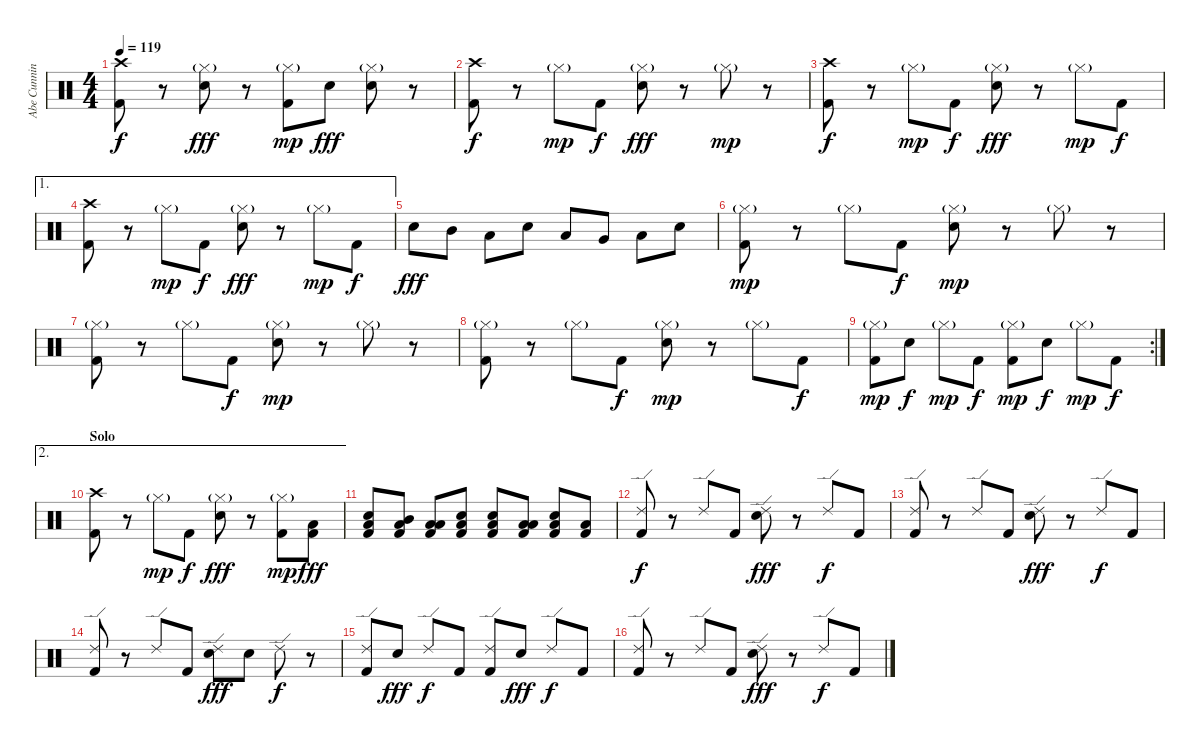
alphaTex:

\track ("Abe Cunningham" "Abe Cunnin") {instrument percussion}
\staff {score}
\articulation defaults
\ts (4 4)
\tempo 119
\clef neutral
\ks c
("Crash high (hit)" "Kick (hit) 2").8{dy f} r.8 ("Hi-Hat (closed)"{g} "Snare (hit) 2").8{dy fff} r.8 ("Hi-Hat (closed)"{g} "Kick (hit) 2").8{dy mp} "Snare (hit) 2".8{dy fff} ("Hi-Hat (closed)"{g} "Snare (hit) 2").8 r.8 |
("Crash high (hit)" "Kick (hit) 2").8{dy f} r.8 "Hi-Hat (closed)"{g}.8{dy mp} "Kick (hit) 2".8{dy f} ("Hi-Hat (closed)"{g} "Snare (hit) 2").8{dy fff} r.8 "Hi-Hat (closed)"{g}.8{dy mp} r.8 |
("Crash high (hit)" "Kick (hit) 2").8{dy f} r.8 "Hi-Hat (closed)"{g}.8{dy mp} "Kick (hit) 2".8{dy f} ("Hi-Hat (closed)"{g} "Snare (hit) 2").8{dy fff} r.8 "Hi-Hat (closed)"{g}.8{dy mp} "Kick (hit) 2".8{dy f} |
\ae 1
("Crash high (hit)" "Kick (hit) 2").8 r.8 "Hi-Hat (closed)"{g}.8{dy mp} "Kick (hit) 2".8{dy f} ("Hi-Hat (closed)"{g} "Snare (hit) 2").8{dy fff} r.8 "Hi-Hat (closed)"{g}.8{dy mp} "Kick (hit) 2".8{dy f} |
"Snare (hit) 2".8{dy fff} "Mid Tom (hit)".8 "Low Tom (hit)".8 "Snare (hit) 2".8 "Low Tom (hit)".8 "Very Low Tom (hit)".8 "Low Floor Tom (hit)".8 "Snare (hit) 2".8 |
("Hi-Hat (closed)"{g} "Kick (hit) 2").8{dy mp} r.8 "Hi-Hat (closed)"{g}.8 "Kick (hit) 2".8{dy f} ("Hi-Hat (closed)"{g} "Snare (hit) 2").8{dy mp} r.8 "Hi-Hat (closed)"{g}.8 r.8 |
("Hi-Hat (closed)"{g} "Kick (hit) 2").8 r.8 "Hi-Hat (closed)"{g}.8 "Kick (hit) 2".8{dy f} ("Hi-Hat (closed)"{g} "Snare (hit) 2").8{dy mp} r.8 "Hi-Hat (closed)"{g}.8 r.8 |
("Hi-Hat (closed)"{g} "Kick (hit) 2").8 r.8 "Hi-Hat (closed)"{g}.8 "Kick (hit) 2".8{dy f} ("Hi-Hat (closed)"{g} "Snare (hit) 2").8{dy mp} r.8 "Hi-Hat (closed)"{g}.8 "Kick (hit) 2".8{dy f} |
\rc 2
("Hi-Hat (closed)"{g} "Kick (hit) 2").8{dy mp} "Snare (hit) 2".8{dy f} "Hi-Hat (closed)"{g}.8{dy mp} "Kick (hit) 2".8{dy f} ("Hi-Hat (closed)"{g} "Kick (hit) 2").8{dy mp} "Snare (hit) 2".8{dy f} "Hi-Hat (closed)"{g}.8{dy mp} "Kick (hit) 2".8{dy f} |
\ae 2
\section ("" "Solo")
("Crash high (hit)" "Kick (hit) 2").8 r.8 "Hi-Hat (closed)"{g}.8{dy mp} "Kick (hit) 2".8{dy f} ("Hi-Hat (closed)"{g} "Snare (hit) 2").8{dy fff} r.8 ("Hi-Hat (closed)"{g} "Kick (hit) 2").8{dy mp} ("Low Floor Tom (hit)" "Kick (hit) 2").8{dy fff} |
("Snare (hit) 2" "Low Floor Tom (hit)" "Kick (hit) 2").8 ("Mid Tom (hit)" "Low Floor Tom (hit)" "Kick (hit) 2").8 ("Low Tom (hit)" "Low Floor Tom (hit)" "Kick (hit) 2").8 ("Snare (hit) 2" "Low Floor Tom (hit)" "Kick (hit) 2").8 ("Snare (hit) 2" "Low Floor Tom (hit)" "Kick (hit) 2").8 ("Low Tom (hit)" "Low Floor Tom (hit)" "Kick (hit) 2").8 ("Snare (hit) 2" "Low Floor Tom (hit)" "Kick (hit) 2").8 ("Low Floor Tom (hit)" "Kick (hit) 2").8 |
("Ride (edge) 2" "Kick (hit) 2").8{dy f} r.8 "Ride (edge) 2".8 "Kick (hit) 2".8 ("Ride (edge) 2" "Snare (hit) 2").8{dy fff} r.8 "Ride (edge) 2".8{dy f} "Kick (hit) 2".8 |
("Ride (edge) 2" "Kick (hit) 2").8 r.8 "Ride (edge) 2".8 "Kick (hit) 2".8 ("Ride (edge) 2" "Snare (hit) 2").8{dy fff} r.8 "Ride (edge) 2".8{dy f} "Kick (hit) 2".8 |
("Ride (edge) 2" "Kick (hit) 2").8 r.8 "Ride (edge) 2".8 "Kick (hit) 2".8 ("Ride (edge) 2" "Snare (hit) 2").8{dy fff} "Snare (hit) 2".8 "Ride (edge) 2".8{dy f} r.8 |
("Ride (edge) 2" "Kick (hit) 2").8 "Snare (hit) 2".8{dy fff} "Ride (edge) 2".8{dy f} "Kick (hit) 2".8 ("Ride (edge) 2" "Kick (hit) 2").8 "Snare (hit) 2".8{dy fff} "Ride (edge) 2".8{dy f} "Kick (hit) 2".8 |
("Ride (edge) 2" "Kick (hit) 2").8 r.8 "Ride (edge) 2".8 "Kick (hit) 2".8 ("Ride (edge) 2" "Snare (hit) 2").8{dy fff} r.8 "Ride (edge) 2".8{dy f} "Kick (hit) 2".8
